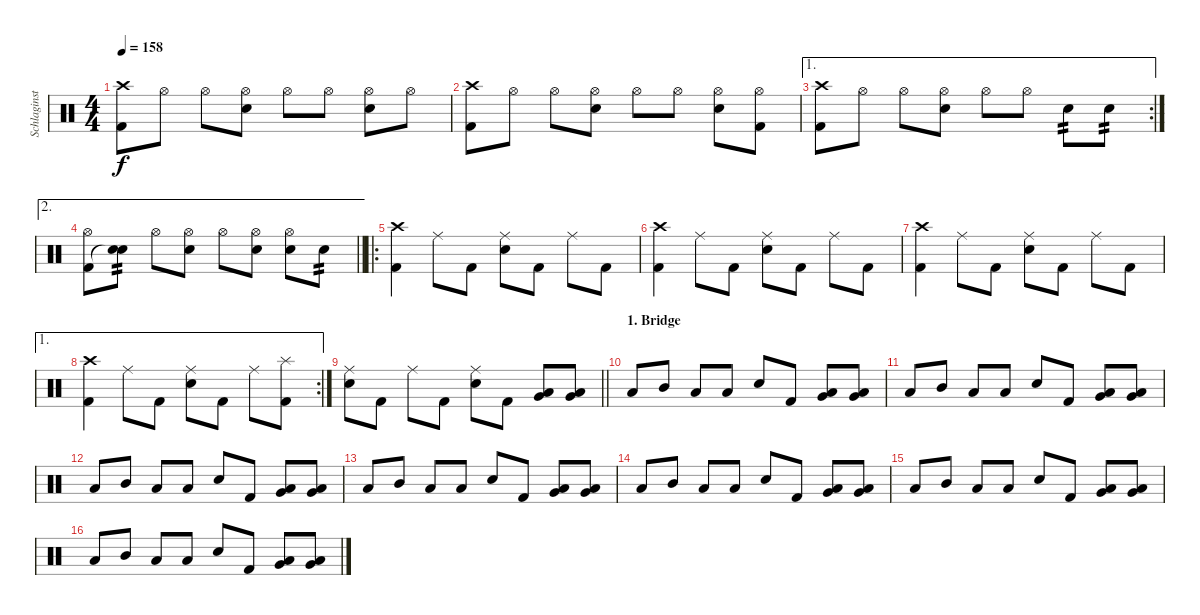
\track ("Schlaginstrumente - Auswahl" "Schlaginst") {instrument percussion}
\staff {score}
\articulation defaults
\ts (4 4)
\tempo 158
\clef neutral
\ks c
("Crash high (hit)" "Kick (hit) 2").8{dy f} "Hi-Hat (open)".8 "Hi-Hat (open)".8 ("Hi-Hat (open)" "Snare (hit) 2").8 "Hi-Hat (open)".8 "Hi-Hat (open)".8 ("Hi-Hat (open)" "Snare (hit) 2").8 "Hi-Hat (open)".8 |
("Crash high (hit)" "Kick (hit) 2").8 "Hi-Hat (open)".8 "Hi-Hat (open)".8 ("Hi-Hat (open)" "Snare (hit) 2").8 "Hi-Hat (open)".8 "Hi-Hat (open)".8 ("Hi-Hat (open)" "Snare (hit) 2").8 ("Hi-Hat (open)" "Kick (hit) 2").8 |
\ae 1
\rc 2
("Crash high (hit)" "Kick (hit) 2").8 "Hi-Hat (open)".8 "Hi-Hat (open)".8 ("Hi-Hat (open)" "Snare (hit) 2").8 "Hi-Hat (open)".8 "Hi-Hat (open)".8 "Snare (hit) 2".8{tp 2} "Snare (hit) 2".8{tp 2} |
\ae 2
\barLineRight lightlight
("Hi-Hat (open)" "Kick (hit) 2").8 ("Snare (hit) 2" "Snare (hit)"{t}).8{tp 2} "Hi-Hat (open)".8 ("Hi-Hat (open)" "Snare (hit) 2").8 "Hi-Hat (open)".8 ("Hi-Hat (open)" "Snare (hit) 2").8 ("Hi-Hat (open)" "Snare (hit) 2").8 "Snare (hit) 2".8{tp 2} |
\ro
("Crash high (hit)" "Kick (hit) 2").4 "Ride (middle)".8 "Kick (hit) 2".8 ("Ride (middle)" "Snare (hit) 2").8 "Kick (hit) 2".8 "Ride (middle)".8 "Kick (hit) 2".8 |
("Crash high (hit)" "Kick (hit) 2").4 "Ride (middle)".8 "Kick (hit) 2".8 ("Ride (middle)" "Snare (hit) 2").8 "Kick (hit) 2".8 "Ride (middle)".8 "Kick (hit) 2".8 |
("Crash high (hit)" "Kick (hit) 2").4 "Ride (middle)".8 "Kick (hit) 2".8 ("Ride (middle)" "Snare (hit) 2").8 "Kick (hit) 2".8 "Ride (middle)".8 "Kick (hit) 2".8 |
\ae 1
\rc 2
("Crash high (hit)" "Kick (hit) 2").4 "Ride (middle)".8 "Kick (hit) 2".8 ("Ride (middle)" "Snare (hit) 2").8 "Kick (hit) 2".8 "Ride (middle)".8 ("Splash (hit)" "Kick (hit) 2").8 |
\barLineRight lightlight
("Ride (middle)" "Snare (hit) 2").8 "Kick (hit) 2".8 "Ride (middle)".8 "Kick (hit) 2".8 ("Ride (middle)" "Snare (hit) 2").8 "Kick (hit) 2".8 ("Low Tom (hit)" "Very Low Tom (hit)").8 ("Low Tom (hit)" "Very Low Tom (hit)").8 |
\section ("" "1. Bridge")
"Low Tom (hit)".8 "Mid Tom (hit)".8 "Low Tom (hit)".8 "Low Tom (hit)".8 "Snare (hit) 2".8 "Kick (hit) 2".8 ("Low Floor Tom (hit)" "Very Low Tom (hit)").8 ("Low Floor Tom (hit)" "Very Low Tom (hit)").8 |
"Low Tom (hit)".8 "Mid Tom (hit)".8 "Low Tom (hit)".8 "Low Tom (hit)".8 "Snare (hit) 2".8 "Kick (hit) 2".8 ("Low Floor Tom (hit)" "Very Low Tom (hit)").8 ("Low Floor Tom (hit)" "Very Low Tom (hit)").8 |
"Low Tom (hit)".8 "Mid Tom (hit)".8 "Low Tom (hit)".8 "Low Tom (hit)".8 "Snare (hit) 2".8 "Kick (hit) 2".8 ("Low Floor Tom (hit)" "Very Low Tom (hit)").8 ("Low Floor Tom (hit)" "Very Low Tom (hit)").8 |
"Low Tom (hit)".8 "Mid Tom (hit)".8 "Low Tom (hit)".8 "Low Tom (hit)".8 "Snare (hit) 2".8 "Kick (hit) 2".8 ("Low Floor Tom (hit)" "Very Low Tom (hit)").8 ("Low Floor Tom (hit)" "Very Low Tom (hit)").8 |
"Low Tom (hit)".8 "Mid Tom (hit)".8 "Low Tom (hit)".8 "Low Tom (hit)".8 "Snare (hit) 2".8 "Kick (hit) 2".8 ("Low Floor Tom (hit)" "Very Low Tom (hit)").8 ("Low Floor Tom (hit)" "Very Low Tom (hit)").8 |
"Low Tom (hit)".8 "Mid Tom (hit)".8 "Low Tom (hit)".8 "Low Tom (hit)".8 "Snare (hit) 2".8 "Kick (hit) 2".8 ("Low Floor Tom (hit)" "Very Low Tom (hit)").8 ("Low Floor Tom (hit)" "Very Low Tom (hit)").8 |
"Low Tom (hit)".8 "Mid Tom (hit)".8 "Low Tom (hit)".8 "Low Tom (hit)".8 "Snare (hit) 2".8 "Kick (hit) 2".8 ("Low Floor Tom (hit)" "Very Low Tom (hit)").8 ("Low Floor Tom (hit)" "Very Low Tom (hit)").8
